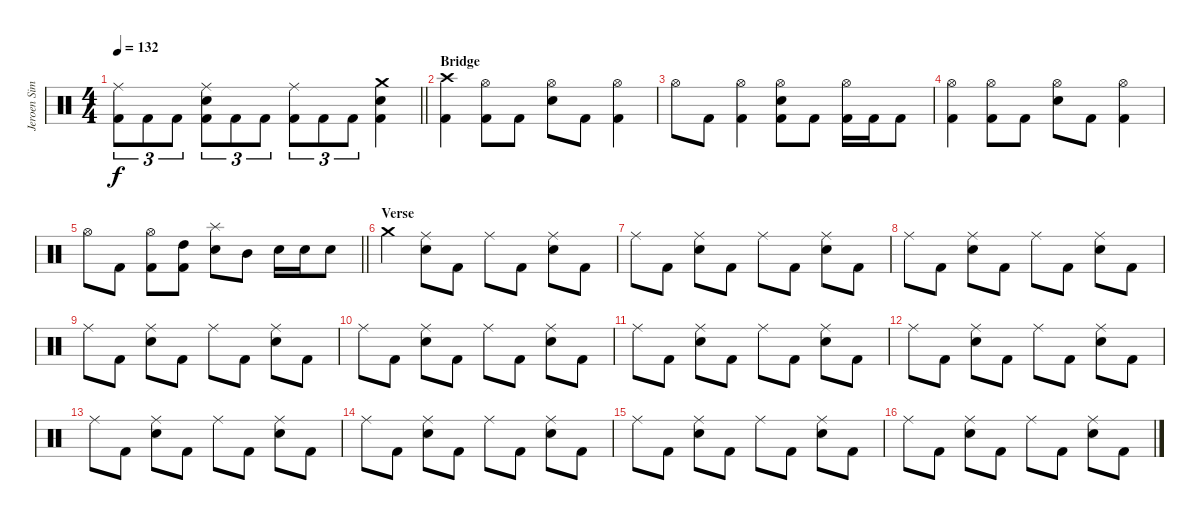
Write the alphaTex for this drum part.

\track ("Jeroen Simons" "Jeroen Sim") {instrument percussion}
\staff {score}
\articulation defaults
\ts (4 4)
\tempo 132
\clef neutral
\barLineRight lightlight
\ks c
("Ride (middle)" "Kick (hit) 2").8{tu (3 2) dy f} "Kick (hit) 2".8{tu (3 2)} "Kick (hit) 2".8{tu (3 2)} ("Ride (middle)" "Electric Snare (hit)" "Kick (hit) 2").8{tu (3 2)} "Kick (hit) 2".8{tu (3 2)} "Kick (hit) 2".8{tu (3 2)} ("Ride (middle)" "Kick (hit) 2").8{tu (3 2)} "Kick (hit) 2".8{tu (3 2)} "Kick (hit) 2".8{tu (3 2)} ("Crash medium (hit)" "Electric Snare (hit)" "Kick (hit) 2").4 |
\section ("" "Bridge")
("Crash high (hit)" "Kick (hit) 2").4 ("Hi-Hat (open)" "Kick (hit) 2").8 "Kick (hit) 2".8 ("Hi-Hat (open)" "Electric Snare (hit)").8 "Kick (hit) 2".8 ("Hi-Hat (open)" "Kick (hit) 2").4 |
"Hi-Hat (open)".8 "Kick (hit) 2".8 ("Hi-Hat (open)" "Kick (hit) 2").4 ("Hi-Hat (open)" "Electric Snare (hit)" "Kick (hit) 2").8 "Kick (hit) 2".8 ("Hi-Hat (open)" "Kick (hit) 2").16 "Kick (hit) 2".16 "Kick (hit) 2".8 |
("Hi-Hat (open)" "Kick (hit) 2").4 ("Hi-Hat (open)" "Kick (hit) 2").8 "Kick (hit) 2".8 ("Hi-Hat (open)" "Electric Snare (hit)").8 "Kick (hit) 2".8 ("Hi-Hat (open)" "Kick (hit) 2").4 |
\barLineRight lightlight "Hi-Hat (open)".8 "Kick (hit) 2".8
("Hi-Hat (open)" "Kick (hit) 2").8 ("High Tom (hit)" "Kick (hit) 2").8 ("Splash (hit)" "Electric Snare (hit)").8 "Mid Tom (hit)".8 "Electric Snare (hit)".16 "Electric Snare (hit)".16 "Electric Snare (hit)".8 |
\section ("" "Verse")
"Crash medium (hit)".4 ("Ride (middle)" "Electric Snare (hit)").8 "Kick (hit) 2".8 "Ride (middle)".8 "Kick (hit) 2".8 ("Ride (middle)" "Electric Snare (hit)").8 "Kick (hit) 2".8 |
"Ride (middle)".8 "Kick (hit) 2".8 ("Ride (middle)" "Electric Snare (hit)").8 "Kick (hit) 2".8 "Ride (middle)".8 "Kick (hit) 2".8 ("Ride (middle)" "Electric Snare (hit)").8 "Kick (hit) 2".8 |
"Ride (middle)".8 "Kick (hit) 2".8 ("Ride (middle)" "Electric Snare (hit)").8 "Kick (hit) 2".8 "Ride (middle)".8 "Kick (hit) 2".8 ("Ride (middle)" "Electric Snare (hit)").8 "Kick (hit) 2".8 |
"Ride (middle)".8 "Kick (hit) 2".8 ("Ride (middle)" "Electric Snare (hit)").8 "Kick (hit) 2".8 "Ride (middle)".8 "Kick (hit) 2".8 ("Ride (middle)" "Electric Snare (hit)").8 "Kick (hit) 2".8 |
"Ride (middle)".8 "Kick (hit) 2".8 ("Ride (middle)" "Electric Snare (hit)").8 "Kick (hit) 2".8 "Ride (middle)".8 "Kick (hit) 2".8 ("Ride (middle)" "Electric Snare (hit)").8 "Kick (hit) 2".8 |
"Ride (middle)".8 "Kick (hit) 2".8 ("Ride (middle)" "Electric Snare (hit)").8 "Kick (hit) 2".8 "Ride (middle)".8 "Kick (hit) 2".8 ("Ride (middle)" "Electric Snare (hit)").8 "Kick (hit) 2".8 |
"Ride (middle)".8 "Kick (hit) 2".8 ("Ride (middle)" "Electric Snare (hit)").8 "Kick (hit) 2".8 "Ride (middle)".8 "Kick (hit) 2".8 ("Ride (middle)" "Electric Snare (hit)").8 "Kick (hit) 2".8 |
"Ride (middle)".8 "Kick (hit) 2".8 ("Ride (middle)" "Electric Snare (hit)").8 "Kick (hit) 2".8 "Ride (middle)".8 "Kick (hit) 2".8 ("Ride (middle)" "Electric Snare (hit)").8 "Kick (hit) 2".8 |
"Ride (middle)".8 "Kick (hit) 2".8 ("Ride (middle)" "Electric Snare (hit)").8 "Kick (hit) 2".8 "Ride (middle)".8 "Kick (hit) 2".8 ("Ride (middle)" "Electric Snare (hit)").8 "Kick (hit) 2".8 |
"Ride (middle)".8 "Kick (hit) 2".8 ("Ride (middle)" "Electric Snare (hit)").8 "Kick (hit) 2".8 "Ride (middle)".8 "Kick (hit) 2".8 ("Ride (middle)" "Electric Snare (hit)").8 "Kick (hit) 2".8 |
"Ride (middle)".8 "Kick (hit) 2".8 ("Ride (middle)" "Electric Snare (hit)").8 "Kick (hit) 2".8 "Ride (middle)".8 "Kick (hit) 2".8 ("Ride (middle)" "Electric Snare (hit)").8 "Kick (hit) 2".8
